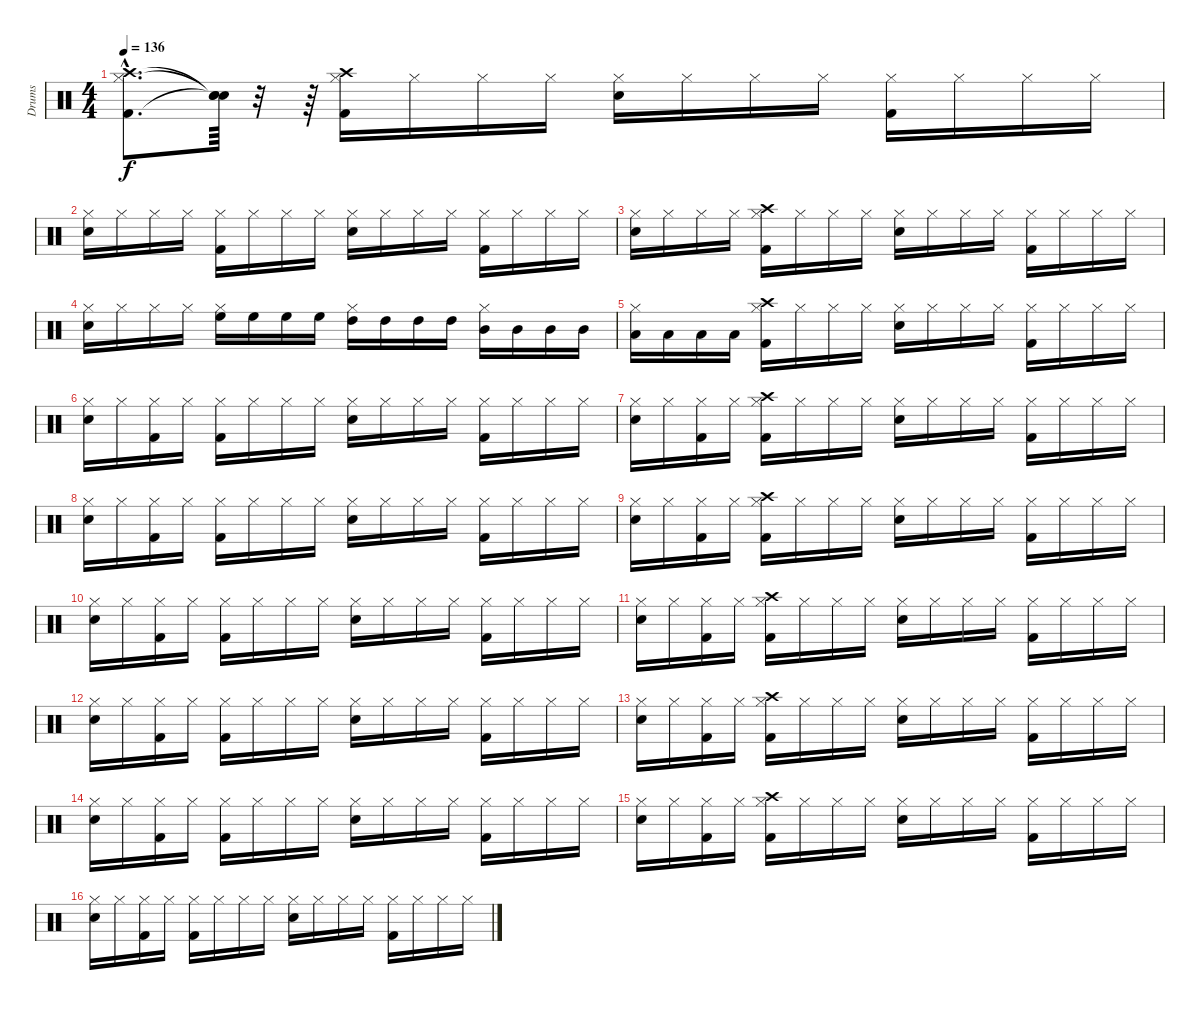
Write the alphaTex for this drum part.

\track ("Drums" "Drums") {instrument percussion}
\staff {score}
\articulation defaults
\ts (4 4)
\tempo 136
\clef neutral
\ks c
("Kick (hit) 2"{hac} "Hi-Hat (closed)"{hac} "Crash high (hit)"{hac}).8{d dy f} ("Snare (hit)"{t} "Snare (hit)"{t} "Snare (hit)"{t}).64 r.32 r.64 ("Kick (hit) 2" "Hi-Hat (closed)" "Crash high (hit)").16 "Hi-Hat (closed)".16 "Hi-Hat (closed)".16 "Hi-Hat (closed)".16 ("Snare (hit) 2" "Hi-Hat (closed)").16 "Hi-Hat (closed)".16 "Hi-Hat (closed)".16 "Hi-Hat (closed)".16 ("Kick (hit) 2" "Hi-Hat (closed)").16 "Hi-Hat (closed)".16 "Hi-Hat (closed)".16 "Hi-Hat (closed)".16 |
("Snare (hit) 2" "Hi-Hat (closed)").16 "Hi-Hat (closed)".16 "Hi-Hat (closed)".16 "Hi-Hat (closed)".16 ("Kick (hit) 2" "Hi-Hat (closed)").16 "Hi-Hat (closed)".16 "Hi-Hat (closed)".16 "Hi-Hat (closed)".16 ("Snare (hit) 2" "Hi-Hat (closed)").16 "Hi-Hat (closed)".16 "Hi-Hat (closed)".16 "Hi-Hat (closed)".16 ("Kick (hit) 2" "Hi-Hat (closed)").16 "Hi-Hat (closed)".16 "Hi-Hat (closed)".16 "Hi-Hat (closed)".16 |
("Snare (hit) 2" "Hi-Hat (closed)").16 "Hi-Hat (closed)".16 "Hi-Hat (closed)".16 "Hi-Hat (closed)".16 ("Kick (hit) 2" "Hi-Hat (closed)" "Crash high (hit)").16 "Hi-Hat (closed)".16 "Hi-Hat (closed)".16 "Hi-Hat (closed)".16 ("Snare (hit) 2" "Hi-Hat (closed)").16 "Hi-Hat (closed)".16 "Hi-Hat (closed)".16 "Hi-Hat (closed)".16 ("Kick (hit) 2" "Hi-Hat (closed)").16 "Hi-Hat (closed)".16 "Hi-Hat (closed)".16 "Hi-Hat (closed)".16 |
("Snare (hit) 2" "Hi-Hat (closed)").16 "Hi-Hat (closed)".16 "Hi-Hat (closed)".16 "Hi-Hat (closed)".16 ("Hi-Hat (closed)" "High Floor Tom (hit)").16 "High Floor Tom (hit)".16 "High Floor Tom (hit)".16 "High Floor Tom (hit)".16 ("Hi-Hat (closed)" "High Tom (hit)").16 "High Tom (hit)".16 "High Tom (hit)".16 "High Tom (hit)".16 ("Hi-Hat (closed)" "Mid Tom (hit)").16 "Mid Tom (hit)".16 "Mid Tom (hit)".16 "Mid Tom (hit)".16 |
("Hi-Hat (closed)" "Low Tom (hit)").16 "Low Tom (hit)".16 "Low Tom (hit)".16 "Low Tom (hit)".16 ("Kick (hit) 2" "Hi-Hat (closed)" "Crash high (hit)").16 "Hi-Hat (closed)".16 "Hi-Hat (closed)".16 "Hi-Hat (closed)".16 ("Snare (hit) 2" "Hi-Hat (closed)").16 "Hi-Hat (closed)".16 "Hi-Hat (closed)".16 "Hi-Hat (closed)".16 ("Kick (hit) 2" "Hi-Hat (closed)").16 "Hi-Hat (closed)".16 "Hi-Hat (closed)".16 "Hi-Hat (closed)".16 |
("Snare (hit) 2" "Hi-Hat (closed)").16 "Hi-Hat (closed)".16 ("Kick (hit) 2" "Hi-Hat (closed)").16 "Hi-Hat (closed)".16 ("Kick (hit) 2" "Hi-Hat (closed)").16 "Hi-Hat (closed)".16 "Hi-Hat (closed)".16 "Hi-Hat (closed)".16 ("Snare (hit) 2" "Hi-Hat (closed)").16 "Hi-Hat (closed)".16 "Hi-Hat (closed)".16 "Hi-Hat (closed)".16 ("Kick (hit) 2" "Hi-Hat (closed)").16 "Hi-Hat (closed)".16 "Hi-Hat (closed)".16 "Hi-Hat (closed)".16 |
("Snare (hit) 2" "Hi-Hat (closed)").16 "Hi-Hat (closed)".16 ("Kick (hit) 2" "Hi-Hat (closed)").16 "Hi-Hat (closed)".16 ("Kick (hit) 2" "Hi-Hat (closed)" "Crash high (hit)").16 "Hi-Hat (closed)".16 "Hi-Hat (closed)".16 "Hi-Hat (closed)".16 ("Snare (hit) 2" "Hi-Hat (closed)").16 "Hi-Hat (closed)".16 "Hi-Hat (closed)".16 "Hi-Hat (closed)".16 ("Kick (hit) 2" "Hi-Hat (closed)").16 "Hi-Hat (closed)".16 "Hi-Hat (closed)".16 "Hi-Hat (closed)".16 |
("Snare (hit) 2" "Hi-Hat (closed)").16 "Hi-Hat (closed)".16 ("Kick (hit) 2" "Hi-Hat (closed)").16 "Hi-Hat (closed)".16 ("Kick (hit) 2" "Hi-Hat (closed)").16 "Hi-Hat (closed)".16 "Hi-Hat (closed)".16 "Hi-Hat (closed)".16 ("Snare (hit) 2" "Hi-Hat (closed)").16 "Hi-Hat (closed)".16 "Hi-Hat (closed)".16 "Hi-Hat (closed)".16 ("Kick (hit) 2" "Hi-Hat (closed)").16 "Hi-Hat (closed)".16 "Hi-Hat (closed)".16 "Hi-Hat (closed)".16 |
("Snare (hit) 2" "Hi-Hat (closed)").16 "Hi-Hat (closed)".16 ("Kick (hit) 2" "Hi-Hat (closed)").16 "Hi-Hat (closed)".16 ("Kick (hit) 2" "Hi-Hat (closed)" "Crash high (hit)").16 "Hi-Hat (closed)".16 "Hi-Hat (closed)".16 "Hi-Hat (closed)".16 ("Snare (hit) 2" "Hi-Hat (closed)").16 "Hi-Hat (closed)".16 "Hi-Hat (closed)".16 "Hi-Hat (closed)".16 ("Kick (hit) 2" "Hi-Hat (closed)").16 "Hi-Hat (closed)".16 "Hi-Hat (closed)".16 "Hi-Hat (closed)".16 |
("Snare (hit) 2" "Hi-Hat (closed)").16 "Hi-Hat (closed)".16 ("Kick (hit) 2" "Hi-Hat (closed)").16 "Hi-Hat (closed)".16 ("Kick (hit) 2" "Hi-Hat (closed)").16 "Hi-Hat (closed)".16 "Hi-Hat (closed)".16 "Hi-Hat (closed)".16 ("Snare (hit) 2" "Hi-Hat (closed)").16 "Hi-Hat (closed)".16 "Hi-Hat (closed)".16 "Hi-Hat (closed)".16 ("Kick (hit) 2" "Hi-Hat (closed)").16 "Hi-Hat (closed)".16 "Hi-Hat (closed)".16 "Hi-Hat (closed)".16 |
("Snare (hit) 2" "Hi-Hat (closed)").16 "Hi-Hat (closed)".16 ("Kick (hit) 2" "Hi-Hat (closed)").16 "Hi-Hat (closed)".16 ("Kick (hit) 2" "Hi-Hat (closed)" "Crash high (hit)").16 "Hi-Hat (closed)".16 "Hi-Hat (closed)".16 "Hi-Hat (closed)".16 ("Snare (hit) 2" "Hi-Hat (closed)").16 "Hi-Hat (closed)".16 "Hi-Hat (closed)".16 "Hi-Hat (closed)".16 ("Kick (hit) 2" "Hi-Hat (closed)").16 "Hi-Hat (closed)".16 "Hi-Hat (closed)".16 "Hi-Hat (closed)".16 |
("Snare (hit) 2" "Hi-Hat (closed)").16 "Hi-Hat (closed)".16 ("Kick (hit) 2" "Hi-Hat (closed)").16 "Hi-Hat (closed)".16 ("Kick (hit) 2" "Hi-Hat (closed)").16 "Hi-Hat (closed)".16 "Hi-Hat (closed)".16 "Hi-Hat (closed)".16 ("Snare (hit) 2" "Hi-Hat (closed)").16 "Hi-Hat (closed)".16 "Hi-Hat (closed)".16 "Hi-Hat (closed)".16 ("Kick (hit) 2" "Hi-Hat (closed)").16 "Hi-Hat (closed)".16 "Hi-Hat (closed)".16 "Hi-Hat (closed)".16 |
("Snare (hit) 2" "Hi-Hat (closed)").16 "Hi-Hat (closed)".16 ("Kick (hit) 2" "Hi-Hat (closed)").16 "Hi-Hat (closed)".16 ("Kick (hit) 2" "Hi-Hat (closed)" "Crash high (hit)").16 "Hi-Hat (closed)".16 "Hi-Hat (closed)".16 "Hi-Hat (closed)".16 ("Snare (hit) 2" "Hi-Hat (closed)").16 "Hi-Hat (closed)".16 "Hi-Hat (closed)".16 "Hi-Hat (closed)".16 ("Kick (hit) 2" "Hi-Hat (closed)").16 "Hi-Hat (closed)".16 "Hi-Hat (closed)".16 "Hi-Hat (closed)".16 |
("Snare (hit) 2" "Hi-Hat (closed)").16 "Hi-Hat (closed)".16 ("Kick (hit) 2" "Hi-Hat (closed)").16 "Hi-Hat (closed)".16 ("Kick (hit) 2" "Hi-Hat (closed)").16 "Hi-Hat (closed)".16 "Hi-Hat (closed)".16 "Hi-Hat (closed)".16 ("Snare (hit) 2" "Hi-Hat (closed)").16 "Hi-Hat (closed)".16 "Hi-Hat (closed)".16 "Hi-Hat (closed)".16 ("Kick (hit) 2" "Hi-Hat (closed)").16 "Hi-Hat (closed)".16 "Hi-Hat (closed)".16 "Hi-Hat (closed)".16 |
("Snare (hit) 2" "Hi-Hat (closed)").16 "Hi-Hat (closed)".16 ("Kick (hit) 2" "Hi-Hat (closed)").16 "Hi-Hat (closed)".16 ("Kick (hit) 2" "Hi-Hat (closed)" "Crash high (hit)").16 "Hi-Hat (closed)".16 "Hi-Hat (closed)".16 "Hi-Hat (closed)".16 ("Snare (hit) 2" "Hi-Hat (closed)").16 "Hi-Hat (closed)".16 "Hi-Hat (closed)".16 "Hi-Hat (closed)".16 ("Kick (hit) 2" "Hi-Hat (closed)").16 "Hi-Hat (closed)".16 "Hi-Hat (closed)".16 "Hi-Hat (closed)".16 |
("Snare (hit) 2" "Hi-Hat (closed)").16 "Hi-Hat (closed)".16 ("Kick (hit) 2" "Hi-Hat (closed)").16 "Hi-Hat (closed)".16 ("Kick (hit) 2" "Hi-Hat (closed)").16 "Hi-Hat (closed)".16 "Hi-Hat (closed)".16 "Hi-Hat (closed)".16 ("Snare (hit) 2" "Hi-Hat (closed)").16 "Hi-Hat (closed)".16 "Hi-Hat (closed)".16 "Hi-Hat (closed)".16 ("Kick (hit) 2" "Hi-Hat (closed)").16 "Hi-Hat (closed)".16 "Hi-Hat (closed)".16 "Hi-Hat (closed)".16
